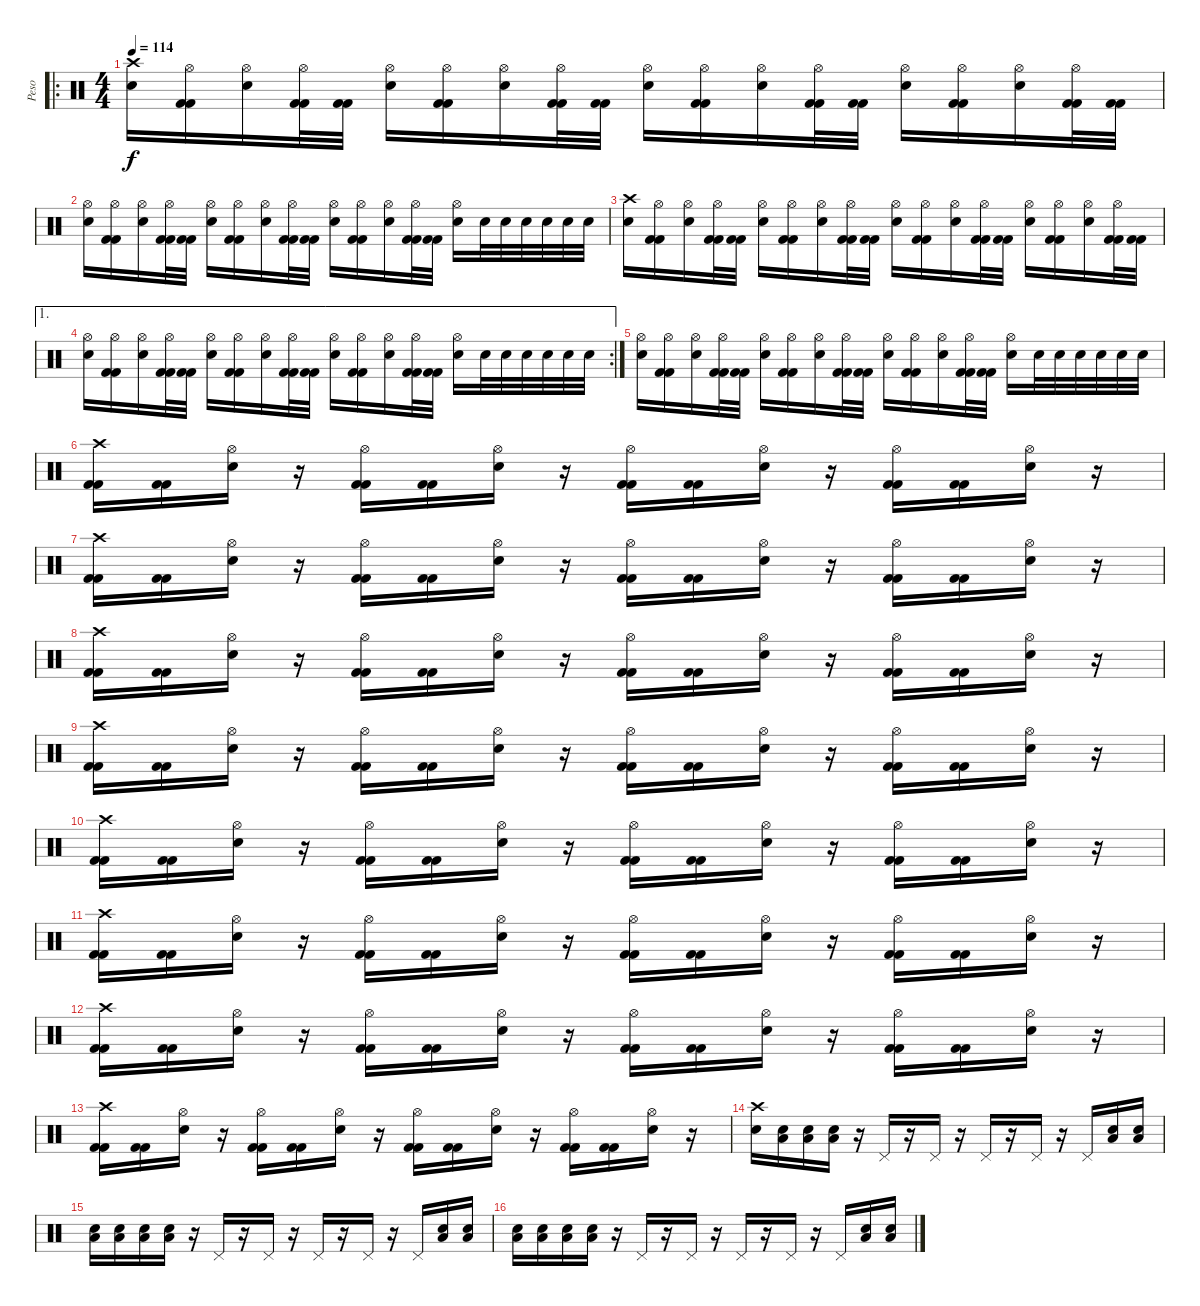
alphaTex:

\track ("Peso" "Peso") {instrument percussion}
\staff {score}
\articulation defaults
\ro
\ts (4 4)
\tempo 114
\clef neutral
\ks c
("Crash high (hit)" "Electric Snare (hit)").16{dy f} ("Hi-Hat (open)" "Kick (hit) 2" "Kick (hit) 2").16 ("Hi-Hat (open)" "Electric Snare (hit)").16 ("Hi-Hat (open)" "Kick (hit) 2" "Kick (hit) 2").32 ("Kick (hit) 2" "Kick (hit) 2").32 ("Hi-Hat (open)" "Electric Snare (hit)").16 ("Hi-Hat (open)" "Kick (hit) 2" "Kick (hit) 2").16 ("Hi-Hat (open)" "Electric Snare (hit)").16 ("Hi-Hat (open)" "Kick (hit) 2" "Kick (hit) 2").32 ("Kick (hit) 2" "Kick (hit) 2").32 ("Hi-Hat (open)" "Electric Snare (hit)").16 ("Hi-Hat (open)" "Kick (hit) 2" "Kick (hit) 2").16 ("Hi-Hat (open)" "Electric Snare (hit)").16 ("Hi-Hat (open)" "Kick (hit) 2" "Kick (hit) 2").32 ("Kick (hit) 2" "Kick (hit) 2").32 ("Hi-Hat (open)" "Electric Snare (hit)").16 ("Hi-Hat (open)" "Kick (hit) 2" "Kick (hit) 2").16 ("Hi-Hat (open)" "Electric Snare (hit)").16 ("Hi-Hat (open)" "Kick (hit) 2" "Kick (hit) 2").32 ("Kick (hit) 2" "Kick (hit) 2").32 |
("Hi-Hat (open)" "Electric Snare (hit)").16 ("Hi-Hat (open)" "Kick (hit) 2" "Kick (hit) 2").16 ("Hi-Hat (open)" "Electric Snare (hit)").16 ("Hi-Hat (open)" "Kick (hit) 2" "Kick (hit) 2").32 ("Kick (hit) 2" "Kick (hit) 2").32 ("Hi-Hat (open)" "Electric Snare (hit)").16 ("Hi-Hat (open)" "Kick (hit) 2" "Kick (hit) 2").16 ("Hi-Hat (open)" "Electric Snare (hit)").16 ("Hi-Hat (open)" "Kick (hit) 2" "Kick (hit) 2").32 ("Kick (hit) 2" "Kick (hit) 2").32 ("Hi-Hat (open)" "Electric Snare (hit)").16 ("Hi-Hat (open)" "Kick (hit) 2" "Kick (hit) 2").16 ("Hi-Hat (open)" "Electric Snare (hit)").16 ("Hi-Hat (open)" "Kick (hit) 2" "Kick (hit) 2").32 ("Kick (hit) 2" "Kick (hit) 2").32 ("Hi-Hat (open)" "Electric Snare (hit)").16 "Electric Snare (hit)".32 "Electric Snare (hit)".32 "Electric Snare (hit)".32 "Electric Snare (hit)".32 "Electric Snare (hit)".32 "Electric Snare (hit)".32 |
("Crash high (hit)" "Electric Snare (hit)").16 ("Hi-Hat (open)" "Kick (hit) 2" "Kick (hit) 2").16 ("Hi-Hat (open)" "Electric Snare (hit)").16 ("Hi-Hat (open)" "Kick (hit) 2" "Kick (hit) 2").32 ("Kick (hit) 2" "Kick (hit) 2").32 ("Hi-Hat (open)" "Electric Snare (hit)").16 ("Hi-Hat (open)" "Kick (hit) 2" "Kick (hit) 2").16 ("Hi-Hat (open)" "Electric Snare (hit)").16 ("Hi-Hat (open)" "Kick (hit) 2" "Kick (hit) 2").32 ("Kick (hit) 2" "Kick (hit) 2").32 ("Hi-Hat (open)" "Electric Snare (hit)").16 ("Hi-Hat (open)" "Kick (hit) 2" "Kick (hit) 2").16 ("Hi-Hat (open)" "Electric Snare (hit)").16 ("Hi-Hat (open)" "Kick (hit) 2" "Kick (hit) 2").32 ("Kick (hit) 2" "Kick (hit) 2").32 ("Hi-Hat (open)" "Electric Snare (hit)").16 ("Hi-Hat (open)" "Kick (hit) 2" "Kick (hit) 2").16 ("Hi-Hat (open)" "Electric Snare (hit)").16 ("Hi-Hat (open)" "Kick (hit) 2" "Kick (hit) 2").32 ("Kick (hit) 2" "Kick (hit) 2").32 |
\ae 1
\rc 2
("Hi-Hat (open)" "Electric Snare (hit)").16 ("Hi-Hat (open)" "Kick (hit) 2" "Kick (hit) 2").16 ("Hi-Hat (open)" "Electric Snare (hit)").16 ("Hi-Hat (open)" "Kick (hit) 2" "Kick (hit) 2").32 ("Kick (hit) 2" "Kick (hit) 2").32 ("Hi-Hat (open)" "Electric Snare (hit)").16 ("Hi-Hat (open)" "Kick (hit) 2" "Kick (hit) 2").16 ("Hi-Hat (open)" "Electric Snare (hit)").16 ("Hi-Hat (open)" "Kick (hit) 2" "Kick (hit) 2").32 ("Kick (hit) 2" "Kick (hit) 2").32 ("Hi-Hat (open)" "Electric Snare (hit)").16 ("Hi-Hat (open)" "Kick (hit) 2" "Kick (hit) 2").16 ("Hi-Hat (open)" "Electric Snare (hit)").16 ("Hi-Hat (open)" "Kick (hit) 2" "Kick (hit) 2").32 ("Kick (hit) 2" "Kick (hit) 2").32 ("Hi-Hat (open)" "Electric Snare (hit)").16 "Electric Snare (hit)".32 "Electric Snare (hit)".32 "Electric Snare (hit)".32 "Electric Snare (hit)".32 "Electric Snare (hit)".32 "Electric Snare (hit)".32 |
("Hi-Hat (open)" "Electric Snare (hit)").16 ("Hi-Hat (open)" "Kick (hit) 2" "Kick (hit) 2").16 ("Hi-Hat (open)" "Electric Snare (hit)").16 ("Hi-Hat (open)" "Kick (hit) 2" "Kick (hit) 2").32 ("Kick (hit) 2" "Kick (hit) 2").32 ("Hi-Hat (open)" "Electric Snare (hit)").16 ("Hi-Hat (open)" "Kick (hit) 2" "Kick (hit) 2").16 ("Hi-Hat (open)" "Electric Snare (hit)").16 ("Hi-Hat (open)" "Kick (hit) 2" "Kick (hit) 2").32 ("Kick (hit) 2" "Kick (hit) 2").32 ("Hi-Hat (open)" "Electric Snare (hit)").16 ("Hi-Hat (open)" "Kick (hit) 2" "Kick (hit) 2").16 ("Hi-Hat (open)" "Electric Snare (hit)").16 ("Hi-Hat (open)" "Kick (hit) 2" "Kick (hit) 2").32 ("Kick (hit) 2" "Kick (hit) 2").32 ("Hi-Hat (open)" "Electric Snare (hit)").16 "Electric Snare (hit)".32 "Electric Snare (hit)".32 "Electric Snare (hit)".32 "Electric Snare (hit)".32 "Electric Snare (hit)".32 "Electric Snare (hit)".32 |
("Crash high (hit)" "Kick (hit) 2" "Kick (hit) 2").16 ("Kick (hit) 2" "Kick (hit) 2").16 ("Hi-Hat (open)" "Electric Snare (hit)").16 r.16 ("Hi-Hat (open)" "Kick (hit) 2" "Kick (hit) 2").16 ("Kick (hit) 2" "Kick (hit) 2").16 ("Hi-Hat (open)" "Electric Snare (hit)").16 r.16 ("Hi-Hat (open)" "Kick (hit) 2" "Kick (hit) 2").16 ("Kick (hit) 2" "Kick (hit) 2").16 ("Hi-Hat (open)" "Electric Snare (hit)").16 r.16 ("Hi-Hat (open)" "Kick (hit) 2" "Kick (hit) 2").16 ("Kick (hit) 2" "Kick (hit) 2").16 ("Hi-Hat (open)" "Electric Snare (hit)").16 r.16 |
("Crash high (hit)" "Kick (hit) 2" "Kick (hit) 2").16 ("Kick (hit) 2" "Kick (hit) 2").16 ("Hi-Hat (open)" "Electric Snare (hit)").16 r.16 ("Hi-Hat (open)" "Kick (hit) 2" "Kick (hit) 2").16 ("Kick (hit) 2" "Kick (hit) 2").16 ("Hi-Hat (open)" "Electric Snare (hit)").16 r.16 ("Hi-Hat (open)" "Kick (hit) 2" "Kick (hit) 2").16 ("Kick (hit) 2" "Kick (hit) 2").16 ("Hi-Hat (open)" "Electric Snare (hit)").16 r.16 ("Hi-Hat (open)" "Kick (hit) 2" "Kick (hit) 2").16 ("Kick (hit) 2" "Kick (hit) 2").16 ("Hi-Hat (open)" "Electric Snare (hit)").16 r.16 |
("Crash high (hit)" "Kick (hit) 2" "Kick (hit) 2").16 ("Kick (hit) 2" "Kick (hit) 2").16 ("Hi-Hat (open)" "Electric Snare (hit)").16 r.16 ("Hi-Hat (open)" "Kick (hit) 2" "Kick (hit) 2").16 ("Kick (hit) 2" "Kick (hit) 2").16 ("Hi-Hat (open)" "Electric Snare (hit)").16 r.16 ("Hi-Hat (open)" "Kick (hit) 2" "Kick (hit) 2").16 ("Kick (hit) 2" "Kick (hit) 2").16 ("Hi-Hat (open)" "Electric Snare (hit)").16 r.16 ("Hi-Hat (open)" "Kick (hit) 2" "Kick (hit) 2").16 ("Kick (hit) 2" "Kick (hit) 2").16 ("Hi-Hat (open)" "Electric Snare (hit)").16 r.16 |
("Crash high (hit)" "Kick (hit) 2" "Kick (hit) 2").16 ("Kick (hit) 2" "Kick (hit) 2").16 ("Hi-Hat (open)" "Electric Snare (hit)").16 r.16 ("Hi-Hat (open)" "Kick (hit) 2" "Kick (hit) 2").16 ("Kick (hit) 2" "Kick (hit) 2").16 ("Hi-Hat (open)" "Electric Snare (hit)").16 r.16 ("Hi-Hat (open)" "Kick (hit) 2" "Kick (hit) 2").16 ("Kick (hit) 2" "Kick (hit) 2").16 ("Hi-Hat (open)" "Electric Snare (hit)").16 r.16 ("Hi-Hat (open)" "Kick (hit) 2" "Kick (hit) 2").16 ("Kick (hit) 2" "Kick (hit) 2").16 ("Hi-Hat (open)" "Electric Snare (hit)").16 r.16 |
("Crash high (hit)" "Kick (hit) 2" "Kick (hit) 2").16 ("Kick (hit) 2" "Kick (hit) 2").16 ("Hi-Hat (open)" "Electric Snare (hit)").16 r.16 ("Hi-Hat (open)" "Kick (hit) 2" "Kick (hit) 2").16 ("Kick (hit) 2" "Kick (hit) 2").16 ("Hi-Hat (open)" "Electric Snare (hit)").16 r.16 ("Hi-Hat (open)" "Kick (hit) 2" "Kick (hit) 2").16 ("Kick (hit) 2" "Kick (hit) 2").16 ("Hi-Hat (open)" "Electric Snare (hit)").16 r.16 ("Hi-Hat (open)" "Kick (hit) 2" "Kick (hit) 2").16 ("Kick (hit) 2" "Kick (hit) 2").16 ("Hi-Hat (open)" "Electric Snare (hit)").16 r.16 |
("Crash high (hit)" "Kick (hit) 2" "Kick (hit) 2").16 ("Kick (hit) 2" "Kick (hit) 2").16 ("Hi-Hat (open)" "Electric Snare (hit)").16 r.16 ("Hi-Hat (open)" "Kick (hit) 2" "Kick (hit) 2").16 ("Kick (hit) 2" "Kick (hit) 2").16 ("Hi-Hat (open)" "Electric Snare (hit)").16 r.16 ("Hi-Hat (open)" "Kick (hit) 2" "Kick (hit) 2").16 ("Kick (hit) 2" "Kick (hit) 2").16 ("Hi-Hat (open)" "Electric Snare (hit)").16 r.16 ("Hi-Hat (open)" "Kick (hit) 2" "Kick (hit) 2").16 ("Kick (hit) 2" "Kick (hit) 2").16 ("Hi-Hat (open)" "Electric Snare (hit)").16 r.16 |
("Crash high (hit)" "Kick (hit) 2" "Kick (hit) 2").16 ("Kick (hit) 2" "Kick (hit) 2").16 ("Hi-Hat (open)" "Electric Snare (hit)").16 r.16 ("Hi-Hat (open)" "Kick (hit) 2" "Kick (hit) 2").16 ("Kick (hit) 2" "Kick (hit) 2").16 ("Hi-Hat (open)" "Electric Snare (hit)").16 r.16 ("Hi-Hat (open)" "Kick (hit) 2" "Kick (hit) 2").16 ("Kick (hit) 2" "Kick (hit) 2").16 ("Hi-Hat (open)" "Electric Snare (hit)").16 r.16 ("Hi-Hat (open)" "Kick (hit) 2" "Kick (hit) 2").16 ("Kick (hit) 2" "Kick (hit) 2").16 ("Hi-Hat (open)" "Electric Snare (hit)").16 r.16 |
("Crash high (hit)" "Kick (hit) 2" "Kick (hit) 2").16 ("Kick (hit) 2" "Kick (hit) 2").16 ("Hi-Hat (open)" "Electric Snare (hit)").16 r.16 ("Hi-Hat (open)" "Kick (hit) 2" "Kick (hit) 2").16 ("Kick (hit) 2" "Kick (hit) 2").16 ("Hi-Hat (open)" "Electric Snare (hit)").16 r.16 ("Hi-Hat (open)" "Kick (hit) 2" "Kick (hit) 2").16 ("Kick (hit) 2" "Kick (hit) 2").16 ("Hi-Hat (open)" "Electric Snare (hit)").16 r.16 ("Hi-Hat (open)" "Kick (hit) 2" "Kick (hit) 2").16 ("Kick (hit) 2" "Kick (hit) 2").16 ("Hi-Hat (open)" "Electric Snare (hit)").16 r.16 |
("Crash high (hit)" "Electric Snare (hit)").16 ("Low Floor Tom (hit)" "Electric Snare (hit)").16 ("Low Floor Tom (hit)" "Electric Snare (hit)").16 ("Low Floor Tom (hit)" "Electric Snare (hit)").16 r.16 "Pedal Hi-Hat (hit)".16 r.16 "Pedal Hi-Hat (hit)".16 r.16 "Pedal Hi-Hat (hit)".16 r.16 "Pedal Hi-Hat (hit)".16 r.16 "Pedal Hi-Hat (hit)".16 ("Low Floor Tom (hit)" "Electric Snare (hit)").16 ("Low Floor Tom (hit)" "Electric Snare (hit)").16 |
("Low Floor Tom (hit)" "Electric Snare (hit)").16 ("Low Floor Tom (hit)" "Electric Snare (hit)").16 ("Low Floor Tom (hit)" "Electric Snare (hit)").16 ("Low Floor Tom (hit)" "Electric Snare (hit)").16 r.16 "Pedal Hi-Hat (hit)".16 r.16 "Pedal Hi-Hat (hit)".16 r.16 "Pedal Hi-Hat (hit)".16 r.16 "Pedal Hi-Hat (hit)".16 r.16 "Pedal Hi-Hat (hit)".16 ("Low Floor Tom (hit)" "Electric Snare (hit)").16 ("Low Floor Tom (hit)" "Electric Snare (hit)").16 |
("Low Floor Tom (hit)" "Electric Snare (hit)").16 ("Low Floor Tom (hit)" "Electric Snare (hit)").16 ("Low Floor Tom (hit)" "Electric Snare (hit)").16 ("Low Floor Tom (hit)" "Electric Snare (hit)").16 r.16 "Pedal Hi-Hat (hit)".16 r.16 "Pedal Hi-Hat (hit)".16 r.16 "Pedal Hi-Hat (hit)".16 r.16 "Pedal Hi-Hat (hit)".16 r.16 "Pedal Hi-Hat (hit)".16 ("Low Floor Tom (hit)" "Electric Snare (hit)").16 ("Low Floor Tom (hit)" "Electric Snare (hit)").16
